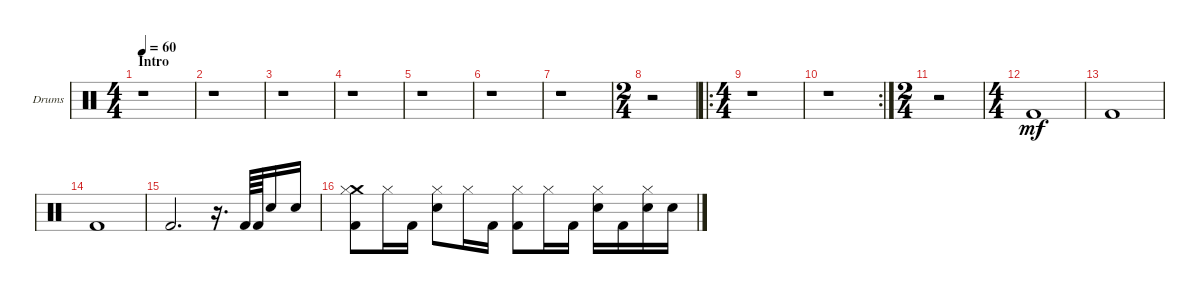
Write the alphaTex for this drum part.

\bracketExtendMode groupsimilarinstruments
\firstSystemTrackNameOrientation horizontal
\otherSystemsTrackNameOrientation horizontal
\track ("Drumkit" "Drums") {instrument percussion}
\staff {score}
\articulation defaults
\ts (4 4)
\beaming (8 2 2 2 2)
\section ("" "Intro")
\tempo 60
\clef neutral
\ks c
r.1{dy mf} |
r.1 |
r.1 |
r.1 |
r.1 |
r.1 |
r.1 |
\ts (2 4)
r.2 |
\ro
\ts (4 4)
r.1 |
\rc 2
r.1 |
\ts (2 4)
r.2 |
\ts (4 4)
"Kick (hit) 2".1 |
"Kick (hit) 2".1 |
"Kick (hit) 2".1 |
"Kick (hit) 2".2{d} r.16{d} "Kick (hit) 2".64 "Kick (hit) 2".64 "Snare (hit) 2".16 "Snare (hit) 2".16 |
("Kick (hit) 2" "Crash medium (hit)" "Hi-Hat (closed)").8 "Hi-Hat (closed)".16 "Kick (hit) 2".16 ("Snare (hit) 2" "Hi-Hat (closed)").8 "Hi-Hat (closed)".16 "Kick (hit) 2".16 ("Kick (hit) 2" "Hi-Hat (closed)").8 "Hi-Hat (closed)".16 "Kick (hit) 2".16 ("Snare (hit) 2" "Hi-Hat (closed)").16 "Kick (hit) 2".16 ("Snare (hit) 2" "Hi-Hat (closed)").16 "Snare (hit) 2".16
